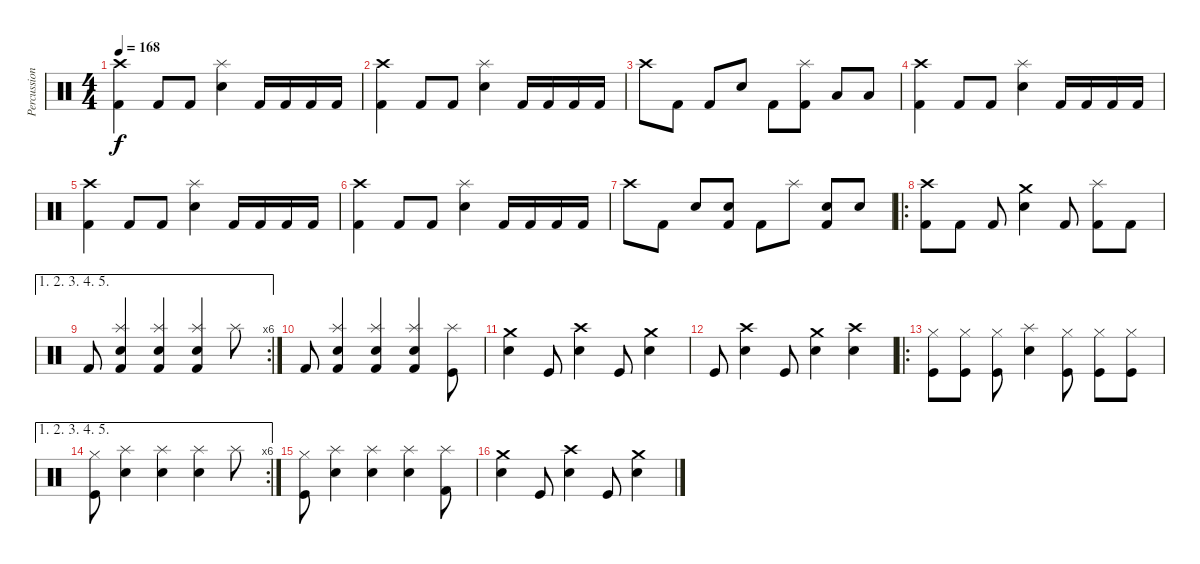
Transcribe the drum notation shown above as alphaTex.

\track ("Percussion" "Percussion") {instrument percussion}
\staff {score}
\articulation defaults
\ts (4 4)
\tempo 168
\clef neutral
\ks c
("Crash high (hit)" "Kick (hit) 2").4{dy f} "Kick (hit) 2".8 "Kick (hit) 2".8 ("Splash (hit)" "Electric Snare (hit)").4 "Kick (hit) 2".16 "Kick (hit) 2".16 "Kick (hit) 2".16 "Kick (hit) 2".16 |
("Crash high (hit)" "Kick (hit) 2").4 "Kick (hit) 2".8 "Kick (hit) 2".8 ("Splash (hit)" "Electric Snare (hit)").4 "Kick (hit) 2".16 "Kick (hit) 2".16 "Kick (hit) 2".16 "Kick (hit) 2".16 |
"Crash high (hit)".8 "Kick (hit) 2".8 "Kick (hit) 2".8 "Electric Snare (hit)".8 "Kick (hit) 2".8 ("Splash (hit)" "Kick (hit) 2").8 "Low Floor Tom (hit)".8 "Low Floor Tom (hit)".8 |
("Crash high (hit)" "Kick (hit) 2").4 "Kick (hit) 2".8 "Kick (hit) 2".8 ("Splash (hit)" "Electric Snare (hit)").4 "Kick (hit) 2".16 "Kick (hit) 2".16 "Kick (hit) 2".16 "Kick (hit) 2".16 |
("Crash high (hit)" "Kick (hit) 2").4 "Kick (hit) 2".8 "Kick (hit) 2".8 ("Splash (hit)" "Electric Snare (hit)").4 "Kick (hit) 2".16 "Kick (hit) 2".16 "Kick (hit) 2".16 "Kick (hit) 2".16 |
("Crash high (hit)" "Kick (hit) 2").4 "Kick (hit) 2".8 "Kick (hit) 2".8 ("Splash (hit)" "Electric Snare (hit)").4 "Kick (hit) 2".16 "Kick (hit) 2".16 "Kick (hit) 2".16 "Kick (hit) 2".16 |
"Crash high (hit)".8 "Kick (hit) 2".8 "Electric Snare (hit)".8 ("Electric Snare (hit)" "Kick (hit) 2").8 "Kick (hit) 2".8 "Splash (hit)".8 ("Electric Snare (hit)" "Kick (hit) 2").8 "Electric Snare (hit)".8 |
\ro
("Crash high (hit)" "Kick (hit) 2").8 "Kick (hit) 2".8 "Kick (hit) 2".8 ("Crash medium (hit)" "Electric Snare (hit)").4 "Kick (hit) 2".8 ("Splash (hit)" "Kick (hit) 2").8 "Kick (hit) 2".8 |
\ae (1 2 3 4 5)
\rc 6 "Kick (hit) 2".8
("Splash (hit)" "Electric Snare (hit)" "Kick (hit) 2").4 ("Splash (hit)" "Electric Snare (hit)" "Kick (hit) 2").4 ("Splash (hit)" "Electric Snare (hit)" "Kick (hit) 2").4 "Splash (hit)".8 |
"Kick (hit) 2".8 ("Splash (hit)" "Electric Snare (hit)" "Kick (hit) 2").4 ("Splash (hit)" "Electric Snare (hit)" "Kick (hit) 2").4 ("Splash (hit)" "Electric Snare (hit)" "Kick (hit) 2").4 ("Splash (hit)" "Kick (hit)").8 |
("Crash medium (hit)" "Electric Snare (hit)").4 "Kick (hit)".8 ("Crash high (hit)" "Electric Snare (hit)").4 "Kick (hit)".8 ("Crash medium (hit)" "Electric Snare (hit)").4 |
"Kick (hit)".8 ("Crash high (hit)" "Electric Snare (hit)").4 "Kick (hit)".8 ("Crash medium (hit)" "Electric Snare (hit)").4 ("Crash high (hit)" "Electric Snare (hit)").4 |
\ro
("Hi-Hat (closed)" "Kick (hit)").8 ("Hi-Hat (closed)" "Kick (hit)").8 ("Hi-Hat (closed)" "Kick (hit)").8 ("Splash (hit)" "Electric Snare (hit)").4 ("Hi-Hat (closed)" "Kick (hit)").8 ("Hi-Hat (closed)" "Kick (hit)").8 ("Hi-Hat (closed)" "Kick (hit)").8 |
\ae (1 2 3 4 5)
\rc 6
("Hi-Hat (closed)" "Kick (hit)").8 ("Splash (hit)" "Electric Snare (hit)").4 ("Splash (hit)" "Electric Snare (hit)").4 ("Splash (hit)" "Electric Snare (hit)").4 "Splash (hit)".8 |
("Hi-Hat (closed)" "Kick (hit)").8 ("Splash (hit)" "Electric Snare (hit)").4 ("Splash (hit)" "Electric Snare (hit)").4 ("Splash (hit)" "Electric Snare (hit)").4 ("Splash (hit)" "Kick (hit) 2").8 |
("Crash medium (hit)" "Electric Snare (hit)").4 "Kick (hit)".8 ("Crash high (hit)" "Electric Snare (hit)").4 "Kick (hit)".8 ("Crash medium (hit)" "Electric Snare (hit)").4
